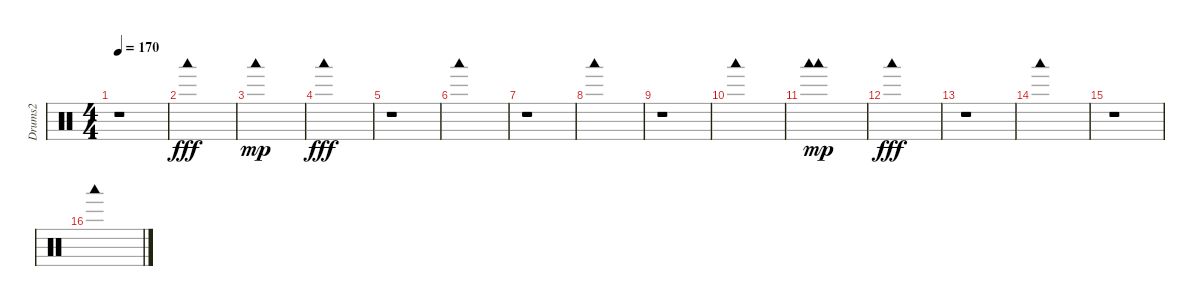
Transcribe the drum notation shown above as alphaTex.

\track ("Drums2" "Drums2") {instrument percussion}
\staff {score}
\articulation defaults
\ts (4 4)
\tempo 170
\clef neutral
\ks c
r.1{dy fff} |
"Woodblock low (hit)".1 |
"Woodblock low (hit)".1{dy mp} |
"Woodblock low (hit)".1{dy fff} |
r.1 |
"Woodblock low (hit)".1 |
r.1 |
"Woodblock low (hit)".1 |
r.1 |
"Woodblock low (hit)".1 |
("Woodblock low (hit)" "Woodblock low (hit)").1{dy mp} |
"Woodblock low (hit)".1{dy fff} |
r.1 |
"Woodblock low (hit)".1 |
r.1 |
"Woodblock low (hit)".1
